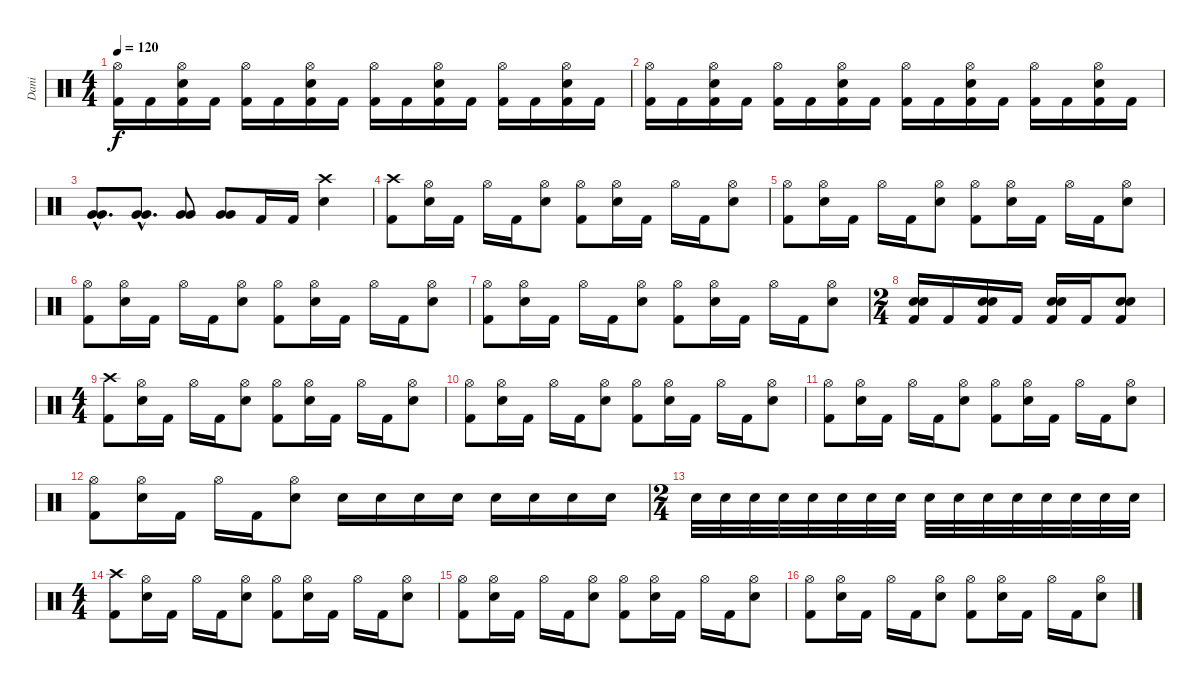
\track ("Dani" "Dani") {instrument percussion}
\staff {score}
\articulation defaults
\ts (4 4)
\tempo 120
\clef neutral
\ks c
("Hi-Hat (open)" "Kick (hit) 2").16{dy f} "Kick (hit) 2".16 ("Hi-Hat (open)" "Snare (hit) 2" "Kick (hit) 2").16 "Kick (hit) 2".16 ("Hi-Hat (open)" "Kick (hit) 2").16 "Kick (hit) 2".16 ("Hi-Hat (open)" "Snare (hit) 2" "Kick (hit) 2").16 "Kick (hit) 2".16 ("Hi-Hat (open)" "Kick (hit) 2").16 "Kick (hit) 2".16 ("Hi-Hat (open)" "Snare (hit) 2" "Kick (hit) 2").16 "Kick (hit) 2".16 ("Hi-Hat (open)" "Kick (hit) 2").16 "Kick (hit) 2".16 ("Hi-Hat (open)" "Snare (hit) 2" "Kick (hit) 2").16 "Kick (hit) 2".16 |
("Hi-Hat (open)" "Kick (hit) 2").16 "Kick (hit) 2".16 ("Hi-Hat (open)" "Snare (hit) 2" "Kick (hit) 2").16 "Kick (hit) 2".16 ("Hi-Hat (open)" "Kick (hit) 2").16 "Kick (hit) 2".16 ("Hi-Hat (open)" "Snare (hit) 2" "Kick (hit) 2").16 "Kick (hit) 2".16 ("Hi-Hat (open)" "Kick (hit) 2").16 "Kick (hit) 2".16 ("Hi-Hat (open)" "Snare (hit) 2" "Kick (hit) 2").16 "Kick (hit) 2".16 ("Hi-Hat (open)" "Kick (hit) 2").16 "Kick (hit) 2".16 ("Hi-Hat (open)" "Snare (hit) 2" "Kick (hit) 2").16 "Kick (hit) 2".16 |
("Very Low Tom (hit)"{hac} "Very Low Tom (hit)"{hac}).8{d bd 240} ("Very Low Tom (hit)"{hac} "Very Low Tom (hit)"{hac}).8{d bd 240} ("Very Low Tom (hit)" "Very Low Tom (hit)").8{bd 240} ("Very Low Tom (hit)" "Very Low Tom (hit)").8{bd 240} "Kick (hit) 2".16 "Kick (hit) 2".16 ("Crash high (hit)" "Snare (hit) 2").4 |
("Crash high (hit)" "Kick (hit) 2").8 ("Hi-Hat (open)" "Snare (hit) 2").16 "Kick (hit) 2".16 "Hi-Hat (open)".16 "Kick (hit) 2".16 ("Hi-Hat (open)" "Snare (hit) 2").8 ("Hi-Hat (open)" "Kick (hit) 2").8 ("Hi-Hat (open)" "Snare (hit) 2").16 "Kick (hit) 2".16 "Hi-Hat (open)".16 "Kick (hit) 2".16 ("Hi-Hat (open)" "Snare (hit) 2").8 |
("Hi-Hat (open)" "Kick (hit) 2").8 ("Hi-Hat (open)" "Snare (hit) 2").16 "Kick (hit) 2".16 "Hi-Hat (open)".16 "Kick (hit) 2".16 ("Hi-Hat (open)" "Snare (hit) 2").8 ("Hi-Hat (open)" "Kick (hit) 2").8 ("Hi-Hat (open)" "Snare (hit) 2").16 "Kick (hit) 2".16 "Hi-Hat (open)".16 "Kick (hit) 2".16 ("Hi-Hat (open)" "Snare (hit) 2").8 |
("Hi-Hat (open)" "Kick (hit) 2").8 ("Hi-Hat (open)" "Snare (hit) 2").16 "Kick (hit) 2".16 "Hi-Hat (open)".16 "Kick (hit) 2".16 ("Hi-Hat (open)" "Snare (hit) 2").8 ("Hi-Hat (open)" "Kick (hit) 2").8 ("Hi-Hat (open)" "Snare (hit) 2").16 "Kick (hit) 2".16 "Hi-Hat (open)".16 "Kick (hit) 2".16 ("Hi-Hat (open)" "Snare (hit) 2").8 |
("Hi-Hat (open)" "Kick (hit) 2").8 ("Hi-Hat (open)" "Snare (hit) 2").16 "Kick (hit) 2".16 "Hi-Hat (open)".16 "Kick (hit) 2".16 ("Hi-Hat (open)" "Snare (hit) 2").8 ("Hi-Hat (open)" "Kick (hit) 2").8 ("Hi-Hat (open)" "Snare (hit) 2").16 "Kick (hit) 2".16 "Hi-Hat (open)".16 "Kick (hit) 2".16 ("Hi-Hat (open)" "Snare (hit) 2").8 |
\ts (2 4)
("Snare (hit) 2" "Snare (hit) 2" "Kick (hit) 2").16{bd 240} "Kick (hit) 2".16 ("Snare (hit) 2" "Snare (hit) 2" "Kick (hit) 2").16{bd 240} "Kick (hit) 2".16 ("Snare (hit) 2" "Snare (hit) 2" "Kick (hit) 2").16{bd 240} "Kick (hit) 2".16 ("Snare (hit) 2" "Snare (hit) 2" "Kick (hit) 2").8{bd 240} |
\ts (4 4)
("Crash high (hit)" "Kick (hit) 2").8 ("Hi-Hat (open)" "Snare (hit) 2").16 "Kick (hit) 2".16 "Hi-Hat (open)".16 "Kick (hit) 2".16 ("Hi-Hat (open)" "Snare (hit) 2").8 ("Hi-Hat (open)" "Kick (hit) 2").8 ("Hi-Hat (open)" "Snare (hit) 2").16 "Kick (hit) 2".16 "Hi-Hat (open)".16 "Kick (hit) 2".16 ("Hi-Hat (open)" "Snare (hit) 2").8 |
("Hi-Hat (open)" "Kick (hit) 2").8 ("Hi-Hat (open)" "Snare (hit) 2").16 "Kick (hit) 2".16 "Hi-Hat (open)".16 "Kick (hit) 2".16 ("Hi-Hat (open)" "Snare (hit) 2").8 ("Hi-Hat (open)" "Kick (hit) 2").8 ("Hi-Hat (open)" "Snare (hit) 2").16 "Kick (hit) 2".16 "Hi-Hat (open)".16 "Kick (hit) 2".16 ("Hi-Hat (open)" "Snare (hit) 2").8 |
("Hi-Hat (open)" "Kick (hit) 2").8 ("Hi-Hat (open)" "Snare (hit) 2").16 "Kick (hit) 2".16 "Hi-Hat (open)".16 "Kick (hit) 2".16 ("Hi-Hat (open)" "Snare (hit) 2").8 ("Hi-Hat (open)" "Kick (hit) 2").8 ("Hi-Hat (open)" "Snare (hit) 2").16 "Kick (hit) 2".16 "Hi-Hat (open)".16 "Kick (hit) 2".16 ("Hi-Hat (open)" "Snare (hit) 2").8 |
("Hi-Hat (open)" "Kick (hit) 2").8 ("Hi-Hat (open)" "Snare (hit) 2").16 "Kick (hit) 2".16 "Hi-Hat (open)".16 "Kick (hit) 2".16 ("Hi-Hat (open)" "Snare (hit) 2").8 "Snare (hit) 2".16 "Snare (hit) 2".16 "Snare (hit) 2".16 "Snare (hit) 2".16 "Snare (hit) 2".16 "Snare (hit) 2".16 "Snare (hit) 2".16 "Snare (hit) 2".16 |
\ts (2 4)
"Snare (hit) 2".32 "Snare (hit) 2".32 "Snare (hit) 2".32 "Snare (hit) 2".32 "Snare (hit) 2".32 "Snare (hit) 2".32 "Snare (hit) 2".32 "Snare (hit) 2".32 "Snare (hit) 2".32 "Snare (hit) 2".32 "Snare (hit) 2".32 "Snare (hit) 2".32 "Snare (hit) 2".32 "Snare (hit) 2".32 "Snare (hit) 2".32 "Snare (hit) 2".32 |
\ts (4 4)
("Crash high (hit)" "Kick (hit) 2").8 ("Hi-Hat (open)" "Snare (hit) 2").16 "Kick (hit) 2".16 "Hi-Hat (open)".16 "Kick (hit) 2".16 ("Hi-Hat (open)" "Snare (hit) 2").8 ("Hi-Hat (open)" "Kick (hit) 2").8 ("Hi-Hat (open)" "Snare (hit) 2").16 "Kick (hit) 2".16 "Hi-Hat (open)".16 "Kick (hit) 2".16 ("Hi-Hat (open)" "Snare (hit) 2").8 |
("Hi-Hat (open)" "Kick (hit) 2").8 ("Hi-Hat (open)" "Snare (hit) 2").16 "Kick (hit) 2".16 "Hi-Hat (open)".16 "Kick (hit) 2".16 ("Hi-Hat (open)" "Snare (hit) 2").8 ("Hi-Hat (open)" "Kick (hit) 2").8 ("Hi-Hat (open)" "Snare (hit) 2").16 "Kick (hit) 2".16 "Hi-Hat (open)".16 "Kick (hit) 2".16 ("Hi-Hat (open)" "Snare (hit) 2").8 |
("Hi-Hat (open)" "Kick (hit) 2").8 ("Hi-Hat (open)" "Snare (hit) 2").16 "Kick (hit) 2".16 "Hi-Hat (open)".16 "Kick (hit) 2".16 ("Hi-Hat (open)" "Snare (hit) 2").8 ("Hi-Hat (open)" "Kick (hit) 2").8 ("Hi-Hat (open)" "Snare (hit) 2").16 "Kick (hit) 2".16 "Hi-Hat (open)".16 "Kick (hit) 2".16 ("Hi-Hat (open)" "Snare (hit) 2").8
